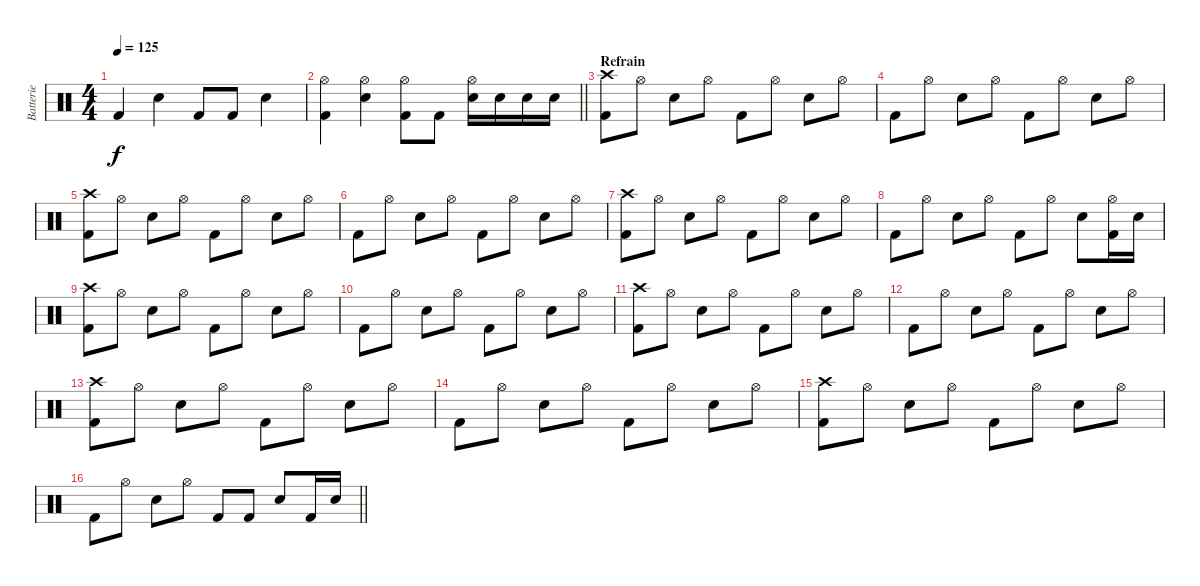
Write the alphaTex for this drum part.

\track ("Batterie" "Batterie") {instrument percussion}
\staff {score}
\articulation defaults
\ts (4 4)
\tempo 125
\clef neutral
\ks c "Kick (hit) 2".4{dy f} "Electric Snare (hit)".4 "Kick (hit) 2".8 "Kick (hit) 2".8 "Electric Snare (hit)".4
|
\barLineRight lightlight
("Hi-Hat (open)" "Kick (hit) 2").4 ("Hi-Hat (open)" "Electric Snare (hit)").4 ("Hi-Hat (open)" "Kick (hit) 2").8 "Kick (hit) 2".8 ("Hi-Hat (open)" "Electric Snare (hit)").16 "Electric Snare (hit)".16 "Electric Snare (hit)".16 "Electric Snare (hit)".16 |
\section ("" "Refrain")
("Crash high (hit)" "Kick (hit) 2").8 "Hi-Hat (open)".8 "Electric Snare (hit)".8 "Hi-Hat (open)".8 "Kick (hit) 2".8 "Hi-Hat (open)".8 "Electric Snare (hit)".8 "Hi-Hat (open)".8 |
"Kick (hit) 2".8 "Hi-Hat (open)".8 "Electric Snare (hit)".8 "Hi-Hat (open)".8 "Kick (hit) 2".8 "Hi-Hat (open)".8 "Electric Snare (hit)".8 "Hi-Hat (open)".8 |
("Crash high (hit)" "Kick (hit) 2").8 "Hi-Hat (open)".8 "Electric Snare (hit)".8 "Hi-Hat (open)".8 "Kick (hit) 2".8 "Hi-Hat (open)".8 "Electric Snare (hit)".8 "Hi-Hat (open)".8 |
"Kick (hit) 2".8 "Hi-Hat (open)".8 "Electric Snare (hit)".8 "Hi-Hat (open)".8 "Kick (hit) 2".8 "Hi-Hat (open)".8 "Electric Snare (hit)".8 "Hi-Hat (open)".8 |
("Crash high (hit)" "Kick (hit) 2").8 "Hi-Hat (open)".8 "Electric Snare (hit)".8 "Hi-Hat (open)".8 "Kick (hit) 2".8 "Hi-Hat (open)".8 "Electric Snare (hit)".8 "Hi-Hat (open)".8 |
"Kick (hit) 2".8 "Hi-Hat (open)".8 "Electric Snare (hit)".8 "Hi-Hat (open)".8 "Kick (hit) 2".8 "Hi-Hat (open)".8 "Electric Snare (hit)".8 ("Hi-Hat (open)" "Kick (hit) 2").16 "Electric Snare (hit)".16 |
("Crash high (hit)" "Kick (hit) 2").8 "Hi-Hat (open)".8 "Electric Snare (hit)".8 "Hi-Hat (open)".8 "Kick (hit) 2".8 "Hi-Hat (open)".8 "Electric Snare (hit)".8 "Hi-Hat (open)".8 |
"Kick (hit) 2".8 "Hi-Hat (open)".8 "Electric Snare (hit)".8 "Hi-Hat (open)".8 "Kick (hit) 2".8 "Hi-Hat (open)".8 "Electric Snare (hit)".8 "Hi-Hat (open)".8 |
("Crash high (hit)" "Kick (hit) 2").8 "Hi-Hat (open)".8 "Electric Snare (hit)".8 "Hi-Hat (open)".8 "Kick (hit) 2".8 "Hi-Hat (open)".8 "Electric Snare (hit)".8 "Hi-Hat (open)".8 |
"Kick (hit) 2".8 "Hi-Hat (open)".8 "Electric Snare (hit)".8 "Hi-Hat (open)".8 "Kick (hit) 2".8 "Hi-Hat (open)".8 "Electric Snare (hit)".8 "Hi-Hat (open)".8 |
("Crash high (hit)" "Kick (hit) 2").8 "Hi-Hat (open)".8 "Electric Snare (hit)".8 "Hi-Hat (open)".8 "Kick (hit) 2".8 "Hi-Hat (open)".8 "Electric Snare (hit)".8 "Hi-Hat (open)".8 |
"Kick (hit) 2".8 "Hi-Hat (open)".8 "Electric Snare (hit)".8 "Hi-Hat (open)".8 "Kick (hit) 2".8 "Hi-Hat (open)".8 "Electric Snare (hit)".8 "Hi-Hat (open)".8 |
("Crash high (hit)" "Kick (hit) 2").8 "Hi-Hat (open)".8 "Electric Snare (hit)".8 "Hi-Hat (open)".8 "Kick (hit) 2".8 "Hi-Hat (open)".8 "Electric Snare (hit)".8 "Hi-Hat (open)".8 |
\barLineRight lightlight "Kick (hit) 2".8 "Hi-Hat (open)".8 "Electric Snare (hit)".8 "Hi-Hat (open)".8 "Kick (hit) 2".8 "Kick (hit) 2".8 "Electric Snare (hit)".8 "Kick (hit) 2".16 "Electric Snare (hit)".16
